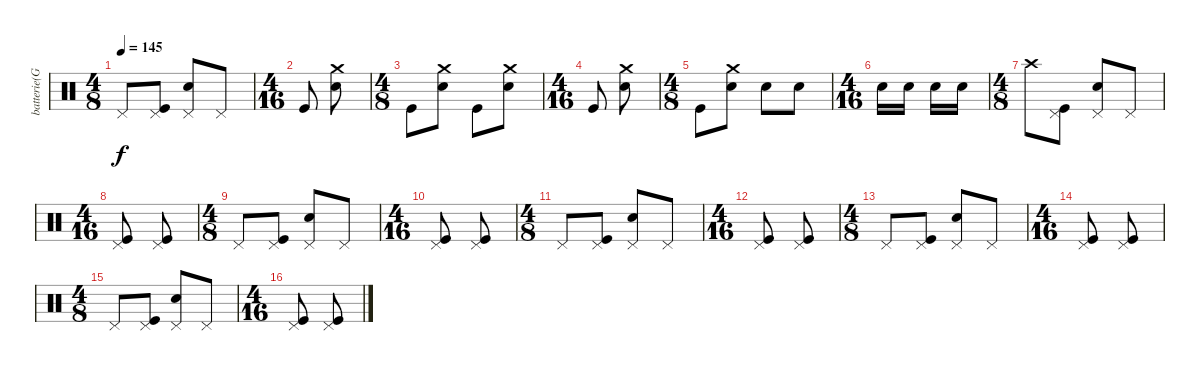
\track ("batterie(Granberg)" "batterie(G") {instrument percussion}
\staff {score}
\articulation defaults
\ts (4 8)
\tempo 145
\clef neutral
\ks c "Pedal Hi-Hat (hit)".8{dy f}
("Pedal Hi-Hat (hit)" "Kick (hit)").8 ("Pedal Hi-Hat (hit)" "Snare (hit) 2").8 "Pedal Hi-Hat (hit)".8 |
\ts (4 16)
"Kick (hit)".8 ("Crash medium (hit)" "Snare (hit) 2").8 |
\ts (4 8)
"Kick (hit)".8 ("Crash medium (hit)" "Snare (hit) 2").8 "Kick (hit)".8 ("Crash medium (hit)" "Snare (hit) 2").8 |
\ts (4 16)
"Kick (hit)".8 ("Crash medium (hit)" "Snare (hit) 2").8 |
\ts (4 8)
"Kick (hit)".8 ("Crash medium (hit)" "Snare (hit) 2").8 "Snare (hit) 2".8 "Snare (hit) 2".8 |
\ts (4 16)
"Snare (hit) 2".16 "Snare (hit) 2".16 "Snare (hit) 2".16 "Snare (hit) 2".16 |
\ts (4 8)
"Crash high (hit)".8 ("Pedal Hi-Hat (hit)" "Kick (hit)").8 ("Pedal Hi-Hat (hit)" "Snare (hit) 2").8 "Pedal Hi-Hat (hit)".8 |
\ts (4 16)
("Pedal Hi-Hat (hit)" "Kick (hit)").8 ("Pedal Hi-Hat (hit)" "Kick (hit)").8 |
\ts (4 8)
"Pedal Hi-Hat (hit)".8 ("Pedal Hi-Hat (hit)" "Kick (hit)").8 ("Pedal Hi-Hat (hit)" "Snare (hit) 2").8 "Pedal Hi-Hat (hit)".8 |
\ts (4 16)
("Pedal Hi-Hat (hit)" "Kick (hit)").8 ("Pedal Hi-Hat (hit)" "Kick (hit)").8 |
\ts (4 8)
"Pedal Hi-Hat (hit)".8 ("Pedal Hi-Hat (hit)" "Kick (hit)").8 ("Pedal Hi-Hat (hit)" "Snare (hit) 2").8 "Pedal Hi-Hat (hit)".8 |
\ts (4 16)
("Pedal Hi-Hat (hit)" "Kick (hit)").8 ("Pedal Hi-Hat (hit)" "Kick (hit)").8 |
\ts (4 8)
"Pedal Hi-Hat (hit)".8 ("Pedal Hi-Hat (hit)" "Kick (hit)").8 ("Pedal Hi-Hat (hit)" "Snare (hit) 2").8 "Pedal Hi-Hat (hit)".8 |
\ts (4 16)
("Pedal Hi-Hat (hit)" "Kick (hit)").8 ("Pedal Hi-Hat (hit)" "Kick (hit)").8 |
\ts (4 8)
"Pedal Hi-Hat (hit)".8 ("Pedal Hi-Hat (hit)" "Kick (hit)").8 ("Pedal Hi-Hat (hit)" "Snare (hit) 2").8 "Pedal Hi-Hat (hit)".8 |
\ts (4 16)
("Pedal Hi-Hat (hit)" "Kick (hit)").8 ("Pedal Hi-Hat (hit)" "Kick (hit)").8
